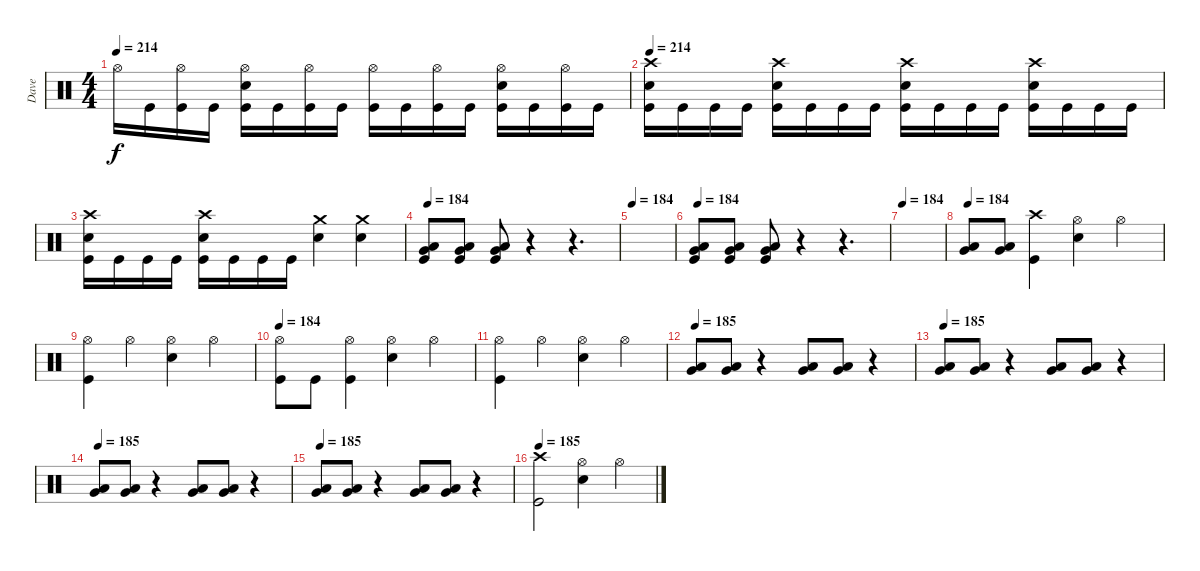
\track ("Dave" "Dave") {instrument percussion}
\staff {score}
\articulation defaults
\ts (4 4)
\tempo 214
\clef neutral
\ks c "Hi-Hat (open)".16{dy f} "Kick (hit)".16
("Hi-Hat (open)" "Kick (hit)").16 "Kick (hit)".16 ("Hi-Hat (open)" "Snare (hit) 2" "Kick (hit)").16 "Kick (hit)".16 ("Hi-Hat (open)" "Kick (hit)").16 "Kick (hit)".16 ("Hi-Hat (open)" "Kick (hit)").16 "Kick (hit)".16 ("Hi-Hat (open)" "Kick (hit)").16 "Kick (hit)".16 ("Hi-Hat (open)" "Snare (hit) 2" "Kick (hit)").16 "Kick (hit)".16 ("Hi-Hat (open)" "Kick (hit)").16 "Kick (hit)".16 |
\tempo 214
("Crash high (hit)" "Snare (hit) 2" "Kick (hit)").16 "Kick (hit)".16 "Kick (hit)".16 "Kick (hit)".16 ("Crash high (hit)" "Snare (hit) 2" "Kick (hit)").16 "Kick (hit)".16 "Kick (hit)".16 "Kick (hit)".16 ("Crash high (hit)" "Snare (hit) 2" "Kick (hit)").16 "Kick (hit)".16 "Kick (hit)".16 "Kick (hit)".16 ("Crash high (hit)" "Snare (hit) 2" "Kick (hit)").16 "Kick (hit)".16 "Kick (hit)".16 "Kick (hit)".16 |
("Crash high (hit)" "Snare (hit) 2" "Kick (hit)").16 "Kick (hit)".16 "Kick (hit)".16 "Kick (hit)".16 ("Crash high (hit)" "Snare (hit) 2" "Kick (hit)").16 "Kick (hit)".16 "Kick (hit)".16 "Kick (hit)".16 ("Crash medium (hit)" "Snare (hit) 2").4 ("Crash medium (hit)" "Snare (hit) 2").4 |
\tempo 184
("Very Low Tom (hit)" "Low Floor Tom (hit)" "Kick (hit)").8 ("Very Low Tom (hit)" "Low Floor Tom (hit)" "Kick (hit)").8 ("Very Low Tom (hit)" "Low Floor Tom (hit)" "Kick (hit)").8 r.4 r.4{d} |
\tempo 184
|
\tempo 184
("Very Low Tom (hit)" "Low Floor Tom (hit)" "Kick (hit)").8 ("Very Low Tom (hit)" "Low Floor Tom (hit)" "Kick (hit)").8 ("Very Low Tom (hit)" "Low Floor Tom (hit)" "Kick (hit)").8 r.4 r.4{d} |
\tempo 184
|
\tempo 184
("Very Low Tom (hit)" "Low Floor Tom (hit)").8 ("Very Low Tom (hit)" "Low Floor Tom (hit)").8 ("Crash high (hit)" "Kick (hit)").4 ("Hi-Hat (open)" "Snare (hit) 2").4 "Hi-Hat (open)".4 |
("Hi-Hat (open)" "Kick (hit)").4 "Hi-Hat (open)".4 ("Hi-Hat (open)" "Snare (hit) 2").4 "Hi-Hat (open)".4 |
\tempo 184
("Hi-Hat (open)" "Kick (hit)").8 "Kick (hit)".8 ("Hi-Hat (open)" "Kick (hit)").4 ("Hi-Hat (open)" "Snare (hit) 2").4 "Hi-Hat (open)".4 |
("Hi-Hat (open)" "Kick (hit)").4 "Hi-Hat (open)".4 ("Hi-Hat (open)" "Snare (hit) 2").4 "Hi-Hat (open)".4 |
\tempo 185
("Very Low Tom (hit)" "Low Floor Tom (hit)").8 ("Very Low Tom (hit)" "Low Floor Tom (hit)").8 r.4 ("Low Floor Tom (hit)" "Very Low Tom (hit)").8 ("Low Floor Tom (hit)" "Very Low Tom (hit)").8 r.4 |
\tempo 185
("Very Low Tom (hit)" "Low Floor Tom (hit)").8 ("Very Low Tom (hit)" "Low Floor Tom (hit)").8 r.4 ("Low Floor Tom (hit)" "Very Low Tom (hit)").8 ("Low Floor Tom (hit)" "Very Low Tom (hit)").8 r.4 |
\tempo 185
("Very Low Tom (hit)" "Low Floor Tom (hit)").8 ("Very Low Tom (hit)" "Low Floor Tom (hit)").8 r.4 ("Low Floor Tom (hit)" "Very Low Tom (hit)").8 ("Low Floor Tom (hit)" "Very Low Tom (hit)").8 r.4 |
\tempo 185
("Very Low Tom (hit)" "Low Floor Tom (hit)").8 ("Very Low Tom (hit)" "Low Floor Tom (hit)").8 r.4 ("Low Floor Tom (hit)" "Very Low Tom (hit)").8 ("Low Floor Tom (hit)" "Very Low Tom (hit)").8 r.4 |
\tempo 185
("Crash high (hit)" "Kick (hit)").2 ("Hi-Hat (open)" "Snare (hit) 2").4 "Hi-Hat (open)".4
